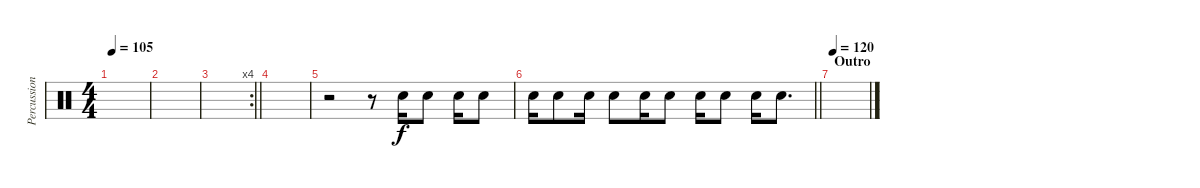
\track ("Percussion FX" "Percussion") {instrument percussion}
\staff {score}
\articulation defaults
\ts (4 4)
\tempo 105
\clef neutral
\ks c
|
|
\rc 4
\barLineRight lightlight
|
|
r.2{volume 3} r.8{volume 0} "Electric Snare (hit)".16 "Electric Snare (hit)".8 "Electric Snare (hit)".16 "Electric Snare (hit)".8 |
\barLineRight lightlight "Electric Snare (hit)".16 "Electric Snare (hit)".8 "Electric Snare (hit)".16 "Electric Snare (hit)".8 "Electric Snare (hit)".16 "Electric Snare (hit)".8 "Electric Snare (hit)".16 "Electric Snare (hit)".8 "Electric Snare (hit)".16 "Electric Snare (hit)".8{d}
|
\section ("" "Outro")
\tempo 120
